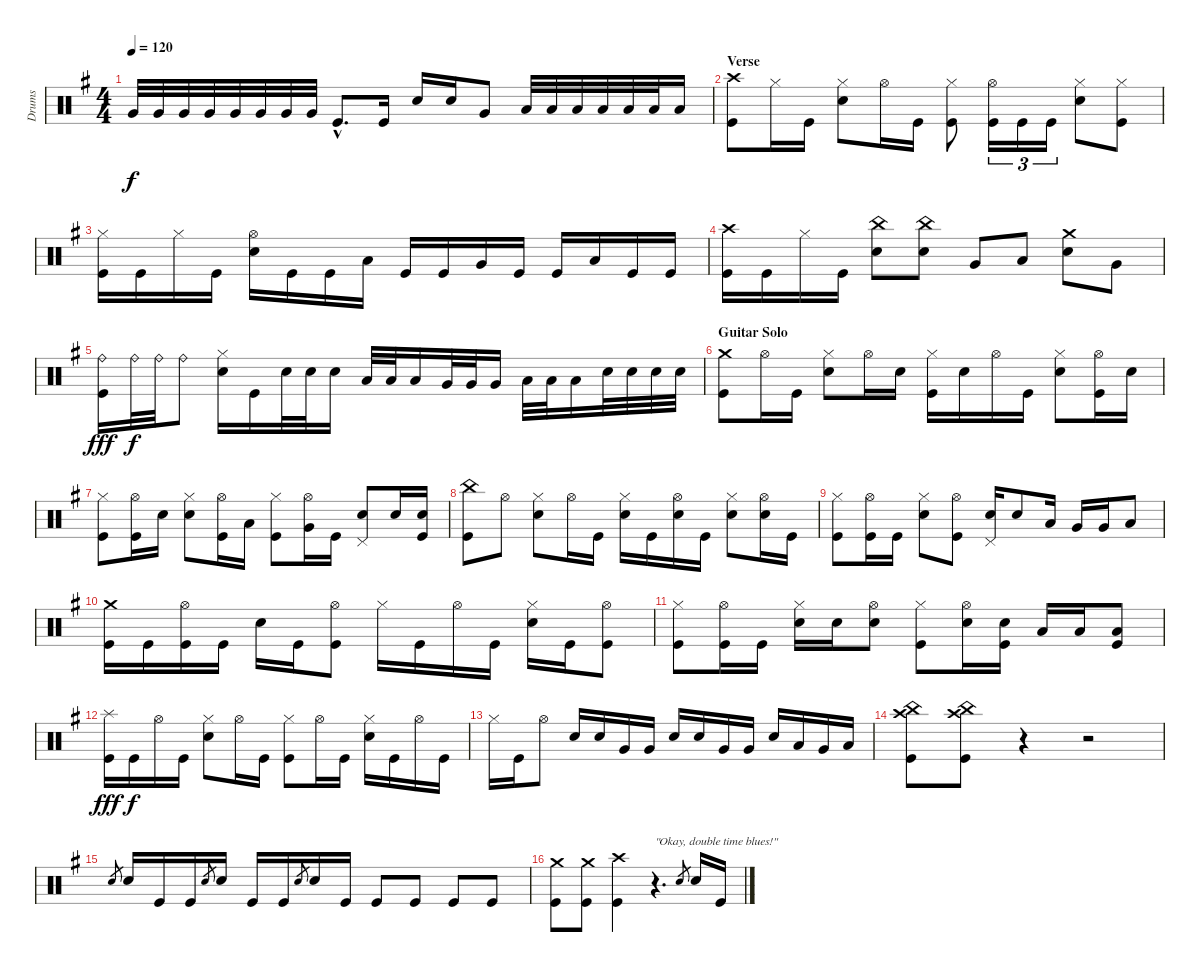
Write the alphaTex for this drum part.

\track ("Drums" "Drums") {instrument percussion}
\staff {score}
\articulation defaults
\ts (4 4)
\tempo 120
\clef neutral
\ks eminor "Very Low Tom (hit)".32{dy f} "Very Low Tom (hit)".32 "Very Low Tom (hit)".32 "Very Low Tom (hit)".32 "Very Low Tom (hit)".32 "Very Low Tom (hit)".32 "Very Low Tom (hit)".32 "Very Low Tom (hit)".32 "Kick (hit)"{hac}.8{d} "Kick (hit)".16 "Snare (hit) 2".16 "Snare (hit) 2".16 "Very Low Tom (hit)".8 "Low Floor Tom (hit)".32 "Low Floor Tom (hit)".32 "Low Floor Tom (hit)".32 "Low Floor Tom (hit)".32 "Low Floor Tom (hit)".32 "Low Floor Tom (hit)".32 "Low Floor Tom (hit)".16
|
\section ("" "Verse")
("Crash high (hit)" "Kick (hit)").8 "Hi-Hat (closed)".16 "Kick (hit)".16 ("Hi-Hat (closed)" "Snare (hit) 2").8 "Hi-Hat (open)".16 "Kick (hit)".16 ("Hi-Hat (closed)" "Kick (hit)").8 ("Hi-Hat (open)" "Kick (hit)").16{tu (3 2)} "Kick (hit)".16{tu (3 2)} "Kick (hit)".16{tu (3 2)} ("Hi-Hat (closed)" "Snare (hit) 2").8 ("Hi-Hat (closed)" "Kick (hit)").8 |
("Hi-Hat (closed)" "Kick (hit)").16 "Kick (hit)".16 "Hi-Hat (closed)".16 "Kick (hit)".16 ("Hi-Hat (open)" "Snare (hit) 2").16 "Kick (hit)".16 "Kick (hit)".16 "Low Tom (hit)".16 "Kick (hit)".16 "Kick (hit)".16 "Very Low Tom (hit)".16 "Kick (hit)".16 "Kick (hit)".16 "Low Floor Tom (hit)".16 "Kick (hit)".16 "Kick (hit)".16 |
("Crash high (hit)" "Kick (hit)").16 "Kick (hit)".16 "Hi-Hat (closed)".16 "Kick (hit)".16 ("China (hit)" "Snare (hit) 2").8 ("China (hit)" "Snare (hit) 2").8 "Very Low Tom (hit)".8 "Low Floor Tom (hit)".8 ("Crash medium (hit)" "Snare (hit) 2").8 "Very Low Tom (hit)".8 |
("Ride (bell)" "Kick (hit)").16{dy fff} "Ride (bell)".32{dy f} "Ride (bell)".32 "Ride (bell)".8 ("Hi-Hat (closed)" "Snare (hit) 2").16 "Kick (hit)".16 "Snare (hit) 2".32 "Snare (hit) 2".32 "Snare (hit) 2".16 "Low Tom (hit)".32 "Low Tom (hit)".32 "Low Tom (hit)".16 "Very Low Tom (hit)".32 "Very Low Tom (hit)".32 "Very Low Tom (hit)".16 "Low Floor Tom (hit)".32 "Low Floor Tom (hit)".32 "Low Floor Tom (hit)".16 "Snare (hit) 2".32 "Snare (hit) 2".32 "Snare (hit) 2".32 "Snare (hit) 2".32 |
\section ("" "Guitar Solo")
("Crash medium (hit)" "Kick (hit)").8 "Hi-Hat (open)".16 "Kick (hit)".16 ("Hi-Hat (closed)" "Snare (hit) 2").8 "Hi-Hat (open)".16 "Snare (hit) 2".16 ("Hi-Hat (closed)" "Kick (hit)").16 "Snare (hit) 2".16 "Hi-Hat (open)".16 "Kick (hit)".16 ("Hi-Hat (closed)" "Snare (hit) 2").8 ("Hi-Hat (open)" "Kick (hit)").16 "Snare (hit) 2".16 |
("Hi-Hat (closed)" "Kick (hit)").8 ("Hi-Hat (open)" "Kick (hit)").16 "Snare (hit) 2".16 ("Hi-Hat (closed)" "Snare (hit) 2").8 ("Hi-Hat (open)" "Kick (hit)").16 "Low Tom (hit)".16 ("Hi-Hat (closed)" "Kick (hit)").8 ("Hi-Hat (open)" "Very Low Tom (hit)").16 "Kick (hit)".16 ("Snare (hit) 2" "Pedal Hi-Hat (hit)").8 "Snare (hit) 2".16 ("Snare (hit) 2" "Kick (hit)").16 |
("China (hit)" "Kick (hit)").8 "Hi-Hat (open)".8 ("Hi-Hat (closed)" "Snare (hit) 2").8 "Hi-Hat (open)".16 "Kick (hit)".16 ("Hi-Hat (closed)" "Snare (hit) 2").16 "Kick (hit)".16 ("Hi-Hat (open)" "Snare (hit) 2").16 "Kick (hit)".16 ("Hi-Hat (closed)" "Snare (hit) 2").8 ("Hi-Hat (open)" "Snare (hit) 2").16 "Kick (hit)".16 |
("Hi-Hat (closed)" "Kick (hit)").8 ("Hi-Hat (open)" "Kick (hit)").16 "Kick (hit)".16 ("Hi-Hat (closed)" "Snare (hit) 2").8 ("Hi-Hat (open)" "Kick (hit)").8 ("Snare (hit) 2" "Pedal Hi-Hat (hit)").16 "Snare (hit) 2".8 "Low Tom (hit)".16 "Very Low Tom (hit)".16 "Very Low Tom (hit)".16 "Low Floor Tom (hit)".8 |
("Crash medium (hit)" "Kick (hit)").16 "Kick (hit)".16 ("Hi-Hat (open)" "Kick (hit)").16 "Kick (hit)".16 "Snare (hit) 2".16 "Kick (hit)".16 ("Hi-Hat (open)" "Kick (hit)").8 "Hi-Hat (closed)".16 "Kick (hit)".16 "Hi-Hat (open)".16 "Kick (hit)".16 ("Hi-Hat (closed)" "Snare (hit) 2").16 "Kick (hit)".16 ("Hi-Hat (open)" "Kick (hit)").8 |
("Hi-Hat (closed)" "Kick (hit)").8 ("Hi-Hat (open)" "Kick (hit)").16 "Kick (hit)".16 ("Hi-Hat (closed)" "Snare (hit) 2").16 "Snare (hit) 2".16 ("Hi-Hat (open)" "Snare (hit) 2").8 ("Hi-Hat (closed)" "Kick (hit)").8 ("Hi-Hat (open)" "Snare (hit) 2").16 ("Snare (hit) 2" "Kick (hit)").16 "Low Tom (hit)".16 "Low Tom (hit)".16 ("Low Floor Tom (hit)" "Kick (hit)").8 |
("Splash (hit)" "Kick (hit)").16{dy fff} "Kick (hit)".16{dy f} "Hi-Hat (open)".16 "Kick (hit)".16 ("Hi-Hat (closed)" "Snare (hit) 2").8 "Hi-Hat (open)".16 "Kick (hit)".16 ("Hi-Hat (closed)" "Kick (hit)").8 "Hi-Hat (open)".16 "Kick (hit)".16 ("Hi-Hat (closed)" "Snare (hit) 2").16 "Kick (hit)".16 "Hi-Hat (open)".16 "Kick (hit)".16 |
"Hi-Hat (closed)".16 "Kick (hit)".16 "Hi-Hat (open)".8 "Snare (hit) 2".16 "Snare (hit) 2".16 "Very Low Tom (hit)".16 "Very Low Tom (hit)".16 "Snare (hit) 2".16 "Snare (hit) 2".16 "Very Low Tom (hit)".16 "Very Low Tom (hit)".16 "Snare (hit) 2".16 "Low Tom (hit)".16 "Very Low Tom (hit)".16 "Low Floor Tom (hit)".16 |
("Crash high (hit)" "China (hit)" "Kick (hit)").8 ("Crash high (hit)" "China (hit)" "Kick (hit)").8 r.4 r.2 |
"Snare (hit) 2".8{gr} "Snare (hit) 2".16 "Kick (hit)".16 "Kick (hit)".16 "Snare (hit) 2".8{gr} "Snare (hit) 2".16 "Kick (hit)".16 "Kick (hit)".16 "Snare (hit) 2".8{gr} "Snare (hit) 2".16 "Kick (hit)".16 "Kick (hit)".8 "Kick (hit)".8 "Kick (hit)".8 "Kick (hit)".8 |
("Crash medium (hit)" "Kick (hit)").8 ("Crash medium (hit)" "Kick (hit)").8 ("Crash high (hit)" "Kick (hit)").4 r.4{d txt "\"Okay, double time blues!\""} "Snare (hit) 2".8{gr} "Snare (hit) 2".16 "Kick (hit)".16
